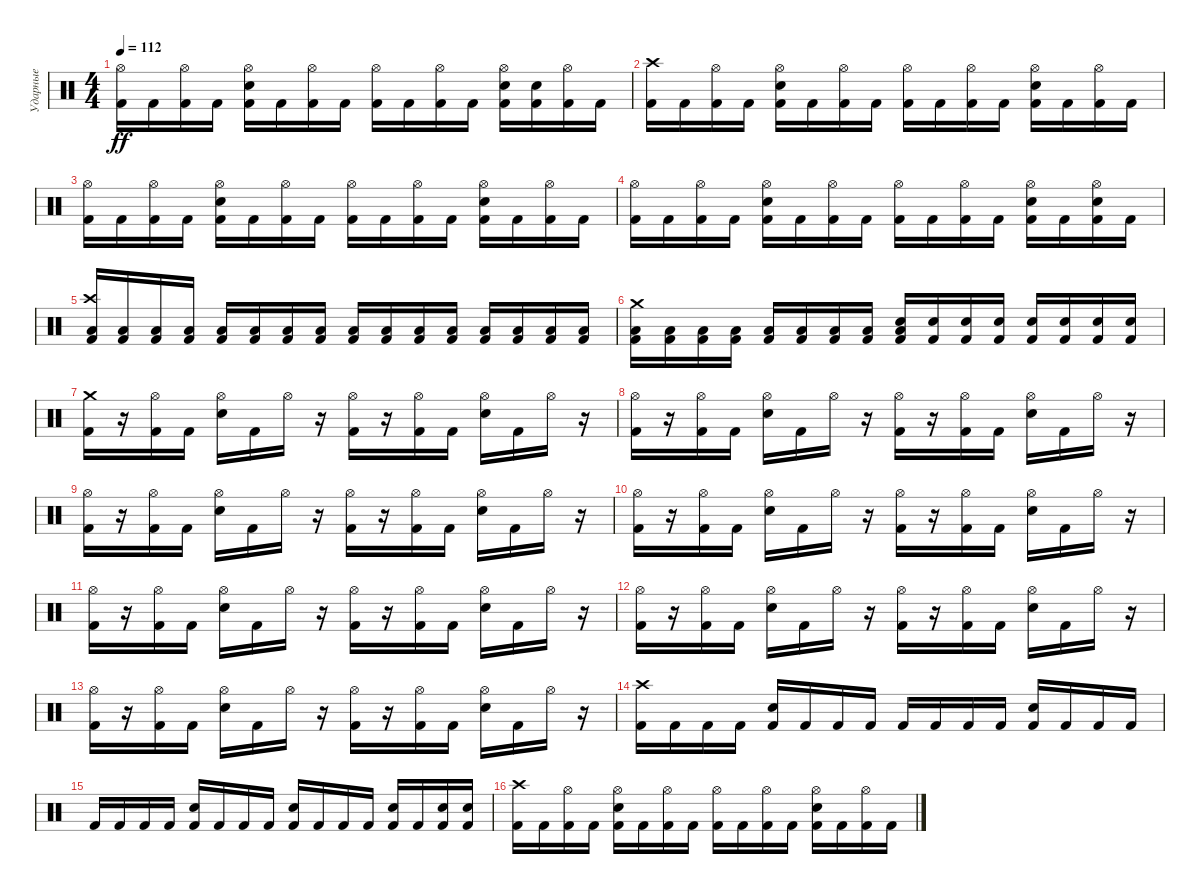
\track ("Ударные" "Ударные") {instrument percussion}
\staff {score}
\articulation defaults
\ts (4 4)
\tempo 112
\clef neutral
\ks c
("Hi-Hat (open)" "Kick (hit) 2").16{dy ff} "Kick (hit) 2".16 ("Hi-Hat (open)" "Kick (hit) 2").16 "Kick (hit) 2".16 ("Hi-Hat (open)" "Snare (hit) 2" "Kick (hit) 2").16 "Kick (hit) 2".16 ("Hi-Hat (open)" "Kick (hit) 2").16 "Kick (hit) 2".16 ("Hi-Hat (open)" "Kick (hit) 2").16 "Kick (hit) 2".16 ("Hi-Hat (open)" "Kick (hit) 2").16 "Kick (hit) 2".16 ("Hi-Hat (open)" "Snare (hit) 2" "Kick (hit) 2").16 ("Snare (hit) 2" "Kick (hit) 2").16 ("Hi-Hat (open)" "Kick (hit) 2").16 "Kick (hit) 2".16 |
("Crash high (hit)" "Kick (hit) 2").16 "Kick (hit) 2".16 ("Hi-Hat (open)" "Kick (hit) 2").16 "Kick (hit) 2".16 ("Hi-Hat (open)" "Snare (hit) 2" "Kick (hit) 2").16 "Kick (hit) 2".16 ("Hi-Hat (open)" "Kick (hit) 2").16 "Kick (hit) 2".16 ("Hi-Hat (open)" "Kick (hit) 2").16 "Kick (hit) 2".16 ("Hi-Hat (open)" "Kick (hit) 2").16 "Kick (hit) 2".16 ("Hi-Hat (open)" "Snare (hit) 2" "Kick (hit) 2").16 "Kick (hit) 2".16 ("Hi-Hat (open)" "Kick (hit) 2").16 "Kick (hit) 2".16 |
("Hi-Hat (open)" "Kick (hit) 2").16 "Kick (hit) 2".16 ("Hi-Hat (open)" "Kick (hit) 2").16 "Kick (hit) 2".16 ("Hi-Hat (open)" "Snare (hit) 2" "Kick (hit) 2").16 "Kick (hit) 2".16 ("Hi-Hat (open)" "Kick (hit) 2").16 "Kick (hit) 2".16 ("Hi-Hat (open)" "Kick (hit) 2").16 "Kick (hit) 2".16 ("Hi-Hat (open)" "Kick (hit) 2").16 "Kick (hit) 2".16 ("Hi-Hat (open)" "Snare (hit) 2" "Kick (hit) 2").16 "Kick (hit) 2".16 ("Hi-Hat (open)" "Kick (hit) 2").16 "Kick (hit) 2".16 |
("Hi-Hat (open)" "Kick (hit) 2").16 "Kick (hit) 2".16 ("Hi-Hat (open)" "Kick (hit) 2").16 "Kick (hit) 2".16 ("Hi-Hat (open)" "Snare (hit) 2" "Kick (hit) 2").16 "Kick (hit) 2".16 ("Hi-Hat (open)" "Kick (hit) 2").16 "Kick (hit) 2".16 ("Hi-Hat (open)" "Kick (hit) 2").16 "Kick (hit) 2".16 ("Hi-Hat (open)" "Kick (hit) 2").16 "Kick (hit) 2".16 ("Hi-Hat (open)" "Snare (hit) 2" "Kick (hit) 2").16 "Kick (hit) 2".16 ("Hi-Hat (open)" "Snare (hit) 2" "Kick (hit) 2").16 "Kick (hit) 2".16 |
("Crash high (hit)" "Kick (hit) 2" "Low Floor Tom (hit)").16 ("Kick (hit) 2" "Low Floor Tom (hit)").16 ("Kick (hit) 2" "Low Floor Tom (hit)").16 ("Kick (hit) 2" "Low Floor Tom (hit)").16 ("Kick (hit) 2" "Low Floor Tom (hit)").16 ("Kick (hit) 2" "Low Floor Tom (hit)").16 ("Kick (hit) 2" "Low Floor Tom (hit)").16 ("Kick (hit) 2" "Low Floor Tom (hit)").16 ("Kick (hit) 2" "Low Floor Tom (hit)").16 ("Kick (hit) 2" "Low Floor Tom (hit)").16 ("Kick (hit) 2" "Low Floor Tom (hit)").16 ("Kick (hit) 2" "Low Floor Tom (hit)").16 ("Kick (hit) 2" "Low Floor Tom (hit)").16 ("Kick (hit) 2" "Low Floor Tom (hit)").16 ("Kick (hit) 2" "Low Floor Tom (hit)").16 ("Kick (hit) 2" "Low Floor Tom (hit)").16 |
("Crash medium (hit)" "Kick (hit) 2" "Low Floor Tom (hit)").16 ("Kick (hit) 2" "Low Floor Tom (hit)").16 ("Kick (hit) 2" "Low Floor Tom (hit)").16 ("Kick (hit) 2" "Low Floor Tom (hit)").16 ("Kick (hit) 2" "Low Floor Tom (hit)").16 ("Kick (hit) 2" "Low Floor Tom (hit)").16 ("Kick (hit) 2" "Low Floor Tom (hit)").16 ("Kick (hit) 2" "Low Floor Tom (hit)").16 ("Snare (hit) 2" "Kick (hit) 2" "Low Floor Tom (hit)").16 ("Snare (hit) 2" "Kick (hit) 2").16 ("Snare (hit) 2" "Kick (hit) 2").16 ("Snare (hit) 2" "Kick (hit) 2").16 ("Snare (hit) 2" "Kick (hit) 2").16 ("Snare (hit) 2" "Kick (hit) 2").16 ("Snare (hit) 2" "Kick (hit) 2").16 ("Snare (hit) 2" "Kick (hit) 2").16 |
("Crash medium (hit)" "Kick (hit) 2").16 r.16 ("Hi-Hat (open)" "Kick (hit) 2").16 "Kick (hit) 2".16 ("Hi-Hat (open)" "Snare (hit) 2").16 "Kick (hit) 2".16 "Hi-Hat (open)".16 r.16 ("Hi-Hat (open)" "Kick (hit) 2").16 r.16 ("Hi-Hat (open)" "Kick (hit) 2").16 "Kick (hit) 2".16 ("Hi-Hat (open)" "Snare (hit) 2").16 "Kick (hit) 2".16 "Hi-Hat (open)".16 r.16 |
("Hi-Hat (open)" "Kick (hit) 2").16 r.16 ("Hi-Hat (open)" "Kick (hit) 2").16 "Kick (hit) 2".16 ("Hi-Hat (open)" "Snare (hit) 2").16 "Kick (hit) 2".16 "Hi-Hat (open)".16 r.16 ("Hi-Hat (open)" "Kick (hit) 2").16 r.16 ("Hi-Hat (open)" "Kick (hit) 2").16 "Kick (hit) 2".16 ("Hi-Hat (open)" "Snare (hit) 2").16 "Kick (hit) 2".16 "Hi-Hat (open)".16 r.16 |
("Hi-Hat (open)" "Kick (hit) 2").16 r.16 ("Hi-Hat (open)" "Kick (hit) 2").16 "Kick (hit) 2".16 ("Hi-Hat (open)" "Snare (hit) 2").16 "Kick (hit) 2".16 "Hi-Hat (open)".16 r.16 ("Hi-Hat (open)" "Kick (hit) 2").16 r.16 ("Hi-Hat (open)" "Kick (hit) 2").16 "Kick (hit) 2".16 ("Hi-Hat (open)" "Snare (hit) 2").16 "Kick (hit) 2".16 "Hi-Hat (open)".16 r.16 |
("Hi-Hat (open)" "Kick (hit) 2").16 r.16 ("Hi-Hat (open)" "Kick (hit) 2").16 "Kick (hit) 2".16 ("Hi-Hat (open)" "Snare (hit) 2").16 "Kick (hit) 2".16 "Hi-Hat (open)".16 r.16 ("Hi-Hat (open)" "Kick (hit) 2").16 r.16 ("Hi-Hat (open)" "Kick (hit) 2").16 "Kick (hit) 2".16 ("Hi-Hat (open)" "Snare (hit) 2").16 "Kick (hit) 2".16 "Hi-Hat (open)".16 r.16 |
("Hi-Hat (open)" "Kick (hit) 2").16 r.16 ("Hi-Hat (open)" "Kick (hit) 2").16 "Kick (hit) 2".16 ("Hi-Hat (open)" "Snare (hit) 2").16 "Kick (hit) 2".16 "Hi-Hat (open)".16 r.16 ("Hi-Hat (open)" "Kick (hit) 2").16 r.16 ("Hi-Hat (open)" "Kick (hit) 2").16 "Kick (hit) 2".16 ("Hi-Hat (open)" "Snare (hit) 2").16 "Kick (hit) 2".16 "Hi-Hat (open)".16 r.16 |
("Hi-Hat (open)" "Kick (hit) 2").16 r.16 ("Hi-Hat (open)" "Kick (hit) 2").16 "Kick (hit) 2".16 ("Hi-Hat (open)" "Snare (hit) 2").16 "Kick (hit) 2".16 "Hi-Hat (open)".16 r.16 ("Hi-Hat (open)" "Kick (hit) 2").16 r.16 ("Hi-Hat (open)" "Kick (hit) 2").16 "Kick (hit) 2".16 ("Hi-Hat (open)" "Snare (hit) 2").16 "Kick (hit) 2".16 "Hi-Hat (open)".16 r.16 |
("Hi-Hat (open)" "Kick (hit) 2").16 r.16 ("Hi-Hat (open)" "Kick (hit) 2").16 "Kick (hit) 2".16 ("Hi-Hat (open)" "Snare (hit) 2").16 "Kick (hit) 2".16 "Hi-Hat (open)".16 r.16 ("Hi-Hat (open)" "Kick (hit) 2").16 r.16 ("Hi-Hat (open)" "Kick (hit) 2").16 "Kick (hit) 2".16 ("Hi-Hat (open)" "Snare (hit) 2").16 "Kick (hit) 2".16 "Hi-Hat (open)".16 r.16 |
("Crash high (hit)" "Kick (hit) 2").16 "Kick (hit) 2".16 "Kick (hit) 2".16 "Kick (hit) 2".16 ("Snare (hit) 2" "Kick (hit) 2").16 "Kick (hit) 2".16 "Kick (hit) 2".16 "Kick (hit) 2".16 "Kick (hit) 2".16 "Kick (hit) 2".16 "Kick (hit) 2".16 "Kick (hit) 2".16 ("Snare (hit) 2" "Kick (hit) 2").16 "Kick (hit) 2".16 "Kick (hit) 2".16 "Kick (hit) 2".16 |
"Kick (hit) 2".16 "Kick (hit) 2".16 "Kick (hit) 2".16 "Kick (hit) 2".16 ("Snare (hit) 2" "Kick (hit) 2").16 "Kick (hit) 2".16 "Kick (hit) 2".16 "Kick (hit) 2".16 ("Snare (hit) 2" "Kick (hit) 2").16 "Kick (hit) 2".16 "Kick (hit) 2".16 "Kick (hit) 2".16 ("Snare (hit) 2" "Kick (hit) 2").16 "Kick (hit) 2".16 ("Snare (hit) 2" "Kick (hit) 2").16 ("Snare (hit) 2" "Kick (hit) 2").16 |
("Crash high (hit)" "Kick (hit) 2").16 "Kick (hit) 2".16 ("Hi-Hat (open)" "Kick (hit) 2").16 "Kick (hit) 2".16 ("Hi-Hat (open)" "Snare (hit) 2" "Kick (hit) 2").16 "Kick (hit) 2".16 ("Hi-Hat (open)" "Kick (hit) 2").16 "Kick (hit) 2".16 ("Hi-Hat (open)" "Kick (hit) 2").16 "Kick (hit) 2".16 ("Hi-Hat (open)" "Kick (hit) 2").16 "Kick (hit) 2".16 ("Hi-Hat (open)" "Snare (hit) 2" "Kick (hit) 2").16 "Kick (hit) 2".16 ("Hi-Hat (open)" "Kick (hit) 2").16 "Kick (hit) 2".16
